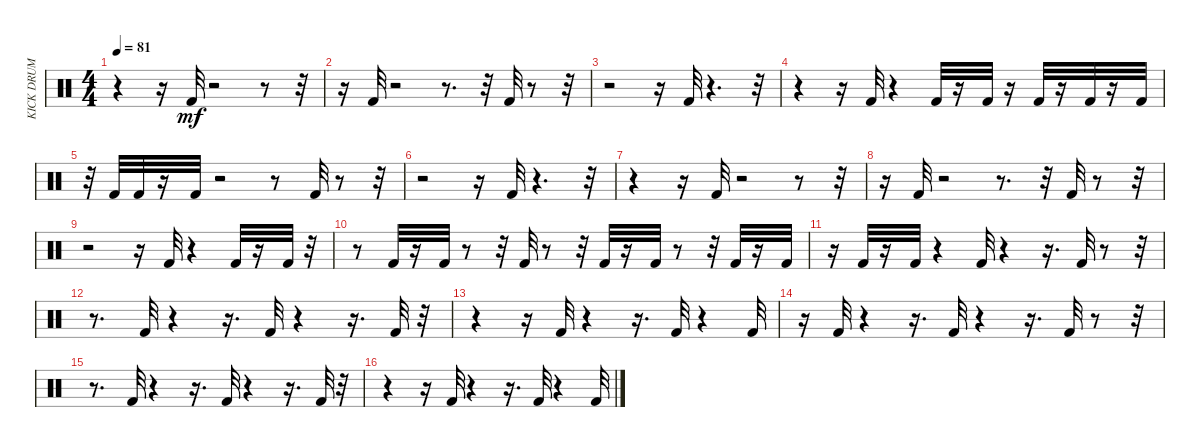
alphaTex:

\track ("KICK DRUM LOW." "KICK DRUM ") {instrument percussion}
\staff {score}
\articulation defaults
\ts (4 4)
\tempo 81
\clef neutral
\ks c
r.4{dy mf} r.16 "Kick (hit) 2".32 r.2 r.8 r.32 |
r.16 "Kick (hit) 2".32 r.2 r.8{d} r.32 "Kick (hit) 2".32 r.8 r.32 |
r.2 r.16 "Kick (hit) 2".32 r.4{d} r.32 |
r.4 r.16 "Kick (hit) 2".32 r.4 "Kick (hit) 2".32 r.16 "Kick (hit) 2".32 r.16 "Kick (hit) 2".32 r.16 "Kick (hit) 2".32 r.16 "Kick (hit) 2".32 |
r.32 "Kick (hit) 2".32 "Kick (hit) 2".32 r.16 "Kick (hit) 2".32 r.2 r.8 "Kick (hit) 2".32 r.8 r.32 |
r.2 r.16 "Kick (hit) 2".32 r.4{d} r.32 |
r.4 r.16 "Kick (hit) 2".32 r.2 r.8 r.32 |
r.16 "Kick (hit) 2".32 r.2 r.8{d} r.32 "Kick (hit) 2".32 r.8 r.32 |
r.2 r.16 "Kick (hit) 2".32 r.4 "Kick (hit) 2".32 r.16 "Kick (hit) 2".32 r.32 |
r.8 "Kick (hit) 2".32 r.16 "Kick (hit) 2".32 r.8 r.32 "Kick (hit) 2".32 r.8 r.32 "Kick (hit) 2".32 r.16 "Kick (hit) 2".32 r.8 r.32 "Kick (hit) 2".32 r.16 "Kick (hit) 2".32 |
r.16 "Kick (hit) 2".32 r.16 "Kick (hit) 2".32 r.4 "Kick (hit) 2".32 r.4 r.16{d} "Kick (hit) 2".32 r.8 r.32 |
r.8{d} "Kick (hit) 2".32 r.4 r.16{d} "Kick (hit) 2".32 r.4 r.16{d} "Kick (hit) 2".32 r.32 |
r.4 r.16 "Kick (hit) 2".32 r.4 r.16{d} "Kick (hit) 2".32 r.4 "Kick (hit) 2".32 |
r.16 "Kick (hit) 2".32 r.4 r.16{d} "Kick (hit) 2".32 r.4 r.16{d} "Kick (hit) 2".32 r.8 r.32 |
r.8{d} "Kick (hit) 2".32 r.4 r.16{d} "Kick (hit) 2".32 r.4 r.16{d} "Kick (hit) 2".32 r.32 |
r.4 r.16 "Kick (hit) 2".32 r.4 r.16{d} "Kick (hit) 2".32 r.4 "Kick (hit) 2".32
